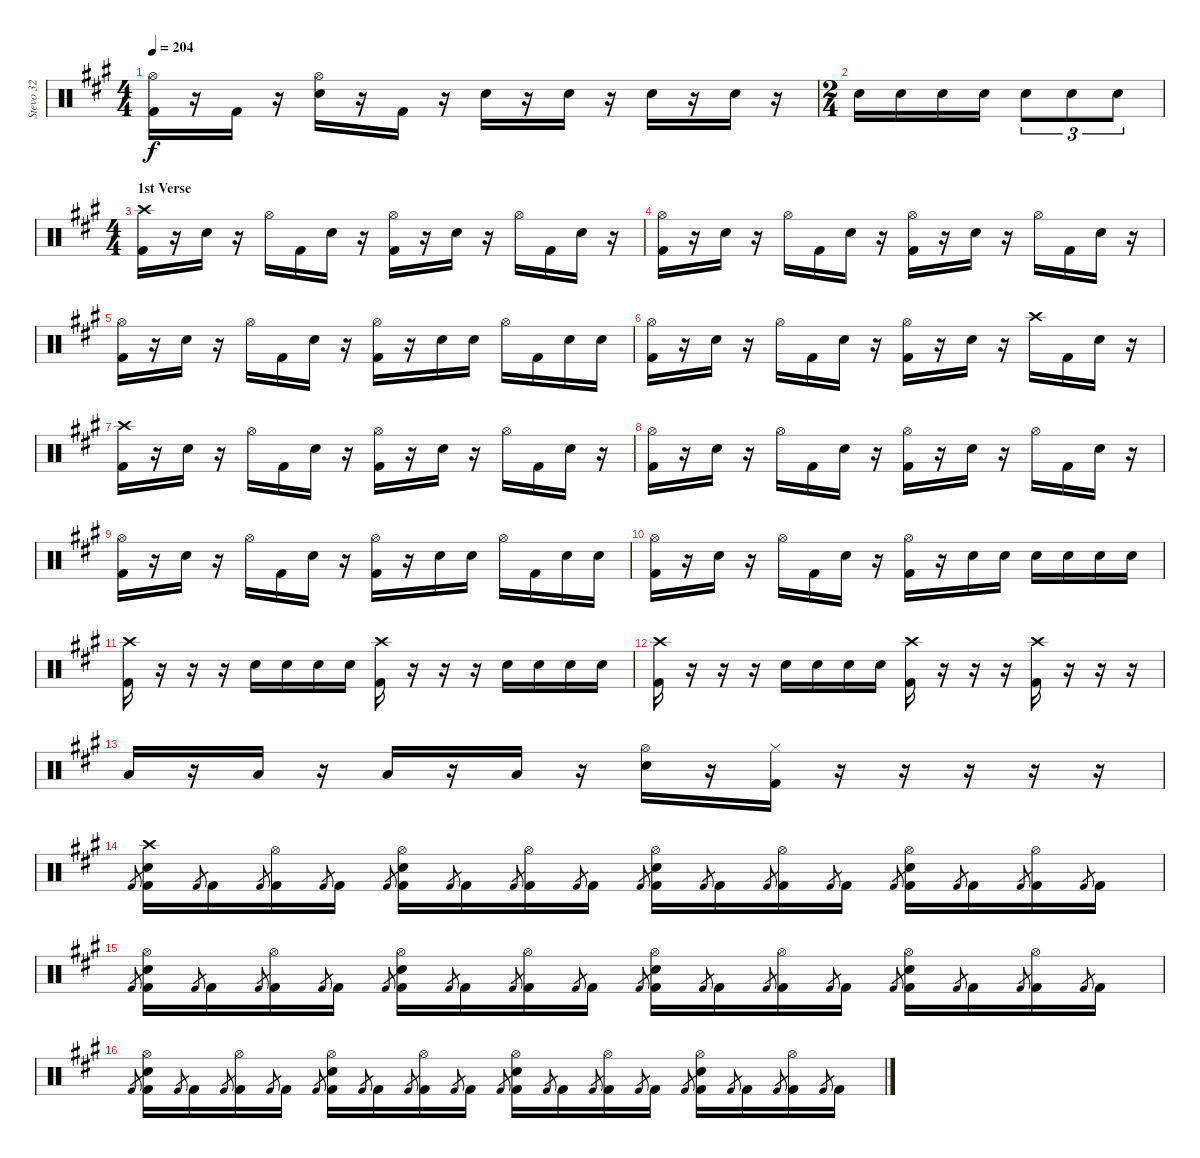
\track ("Stevo 32" "Stevo 32") {instrument percussion}
\staff {score}
\articulation defaults
\ts (4 4)
\tempo 204
\clef neutral
\ks a
("Hi-Hat (open)" "Kick (hit) 2").16{dy f} r.16 "Kick (hit) 2".16 r.16 ("Hi-Hat (open)" "Snare (hit) 2").16 r.16 "Kick (hit) 2".16 r.16 "Snare (hit) 2".16 r.16 "Snare (hit) 2".16 r.16 "Snare (hit) 2".16 r.16 "Snare (hit) 2".16 r.16 |
\ts (2 4)
"Snare (hit) 2".16 "Snare (hit) 2".16 "Snare (hit) 2".16 "Snare (hit) 2".16 "Snare (hit) 2".8{tu (3 2)} "Snare (hit) 2".8{tu (3 2)} "Snare (hit) 2".8{tu (3 2)} |
\ts (4 4)
\section ("" "1st Verse")
("Crash high (hit)" "Kick (hit) 2").16 r.16 "Snare (hit) 2".16 r.16 "Hi-Hat (open)".16 "Kick (hit) 2".16 "Snare (hit) 2".16 r.16 ("Hi-Hat (open)" "Kick (hit) 2").16 r.16 "Snare (hit) 2".16 r.16 "Hi-Hat (open)".16 "Kick (hit) 2".16 "Snare (hit) 2".16 r.16 |
("Hi-Hat (open)" "Kick (hit) 2").16 r.16 "Snare (hit) 2".16 r.16 "Hi-Hat (open)".16 "Kick (hit) 2".16 "Snare (hit) 2".16 r.16 ("Hi-Hat (open)" "Kick (hit) 2").16 r.16 "Snare (hit) 2".16 r.16 "Hi-Hat (open)".16 "Kick (hit) 2".16 "Snare (hit) 2".16 r.16 |
("Hi-Hat (open)" "Kick (hit) 2").16 r.16 "Snare (hit) 2".16 r.16 "Hi-Hat (open)".16 "Kick (hit) 2".16 "Snare (hit) 2".16 r.16 ("Hi-Hat (open)" "Kick (hit) 2").16 r.16 "Snare (hit) 2".16 "Snare (hit) 2".16 "Hi-Hat (open)".16 "Kick (hit) 2".16 "Snare (hit) 2".16 "Snare (hit) 2".16 |
("Hi-Hat (open)" "Kick (hit) 2").16 r.16 "Snare (hit) 2".16 r.16 "Hi-Hat (open)".16 "Kick (hit) 2".16 "Snare (hit) 2".16 r.16 ("Hi-Hat (open)" "Kick (hit) 2").16 r.16 "Snare (hit) 2".16 r.16 "Crash high (hit)".16 "Kick (hit) 2".16 "Snare (hit) 2".16 r.16 |
("Crash high (hit)" "Kick (hit) 2").16 r.16 "Snare (hit) 2".16 r.16 "Hi-Hat (open)".16 "Kick (hit) 2".16 "Snare (hit) 2".16 r.16 ("Hi-Hat (open)" "Kick (hit) 2").16 r.16 "Snare (hit) 2".16 r.16 "Hi-Hat (open)".16 "Kick (hit) 2".16 "Snare (hit) 2".16 r.16 |
("Hi-Hat (open)" "Kick (hit) 2").16 r.16 "Snare (hit) 2".16 r.16 "Hi-Hat (open)".16 "Kick (hit) 2".16 "Snare (hit) 2".16 r.16 ("Hi-Hat (open)" "Kick (hit) 2").16 r.16 "Snare (hit) 2".16 r.16 "Hi-Hat (open)".16 "Kick (hit) 2".16 "Snare (hit) 2".16 r.16 |
("Hi-Hat (open)" "Kick (hit) 2").16 r.16 "Snare (hit) 2".16 r.16 "Hi-Hat (open)".16 "Kick (hit) 2".16 "Snare (hit) 2".16 r.16 ("Hi-Hat (open)" "Kick (hit) 2").16 r.16 "Snare (hit) 2".16 "Snare (hit) 2".16 "Hi-Hat (open)".16 "Kick (hit) 2".16 "Snare (hit) 2".16 "Snare (hit) 2".16 |
("Hi-Hat (open)" "Kick (hit) 2").16 r.16 "Snare (hit) 2".16 r.16 "Hi-Hat (open)".16 "Kick (hit) 2".16 "Snare (hit) 2".16 r.16 ("Hi-Hat (open)" "Kick (hit) 2").16 r.16 "Snare (hit) 2".16 "Snare (hit) 2".16 "Snare (hit) 2".16 "Snare (hit) 2".16 "Snare (hit) 2".16 "Snare (hit) 2".16 |
("Crash high (hit)" "Kick (hit) 2").16 r.16 r.16 r.16 "Snare (hit) 2".16 "Snare (hit) 2".16 "Snare (hit) 2".16 "Snare (hit) 2".16 ("Crash high (hit)" "Kick (hit) 2").16 r.16 r.16 r.16 "Snare (hit) 2".16 "Snare (hit) 2".16 "Snare (hit) 2".16 "Snare (hit) 2".16 |
("Crash high (hit)" "Kick (hit) 2").16 r.16 r.16 r.16 "Snare (hit) 2".16 "Snare (hit) 2".16 "Snare (hit) 2".16 "Snare (hit) 2".16 ("Crash high (hit)" "Kick (hit) 2").16 r.16 r.16 r.16 ("Crash high (hit)" "Kick (hit) 2").16 r.16 r.16 r.16 |
"Low Floor Tom (hit)".16 r.16 "Low Floor Tom (hit)".16 r.16 "Low Floor Tom (hit)".16 r.16 "Low Floor Tom (hit)".16 r.16 ("Hi-Hat (open)" "Snare (hit) 2").16 r.16 ("Hi-Hat (closed)" "Kick (hit) 2").16 r.16 r.16 r.16 r.16 r.16 |
"Kick (hit) 2".8{gr} ("Crash high (hit)" "Snare (hit) 2" "Kick (hit) 2").16 "Kick (hit) 2".8{gr} "Kick (hit) 2".16 "Kick (hit) 2".8{gr} ("Hi-Hat (open)" "Kick (hit) 2").16 "Kick (hit) 2".8{gr} "Kick (hit) 2".16 "Kick (hit) 2".8{gr} ("Hi-Hat (open)" "Snare (hit) 2" "Kick (hit) 2").16 "Kick (hit) 2".8{gr} "Kick (hit) 2".16 "Kick (hit) 2".8{gr} ("Hi-Hat (open)" "Kick (hit) 2").16 "Kick (hit) 2".8{gr} "Kick (hit) 2".16 "Kick (hit) 2".8{gr} ("Hi-Hat (open)" "Snare (hit) 2" "Kick (hit) 2").16 "Kick (hit) 2".8{gr} "Kick (hit) 2".16 "Kick (hit) 2".8{gr} ("Hi-Hat (open)" "Kick (hit) 2").16 "Kick (hit) 2".8{gr} "Kick (hit) 2".16 "Kick (hit) 2".8{gr} ("Hi-Hat (open)" "Snare (hit) 2" "Kick (hit) 2").16 "Kick (hit) 2".8{gr} "Kick (hit) 2".16 "Kick (hit) 2".8{gr} ("Hi-Hat (open)" "Kick (hit) 2").16 "Kick (hit) 2".8{gr} "Kick (hit) 2".16 |
"Kick (hit) 2".8{gr} ("Hi-Hat (open)" "Snare (hit) 2" "Kick (hit) 2").16 "Kick (hit) 2".8{gr} "Kick (hit) 2".16 "Kick (hit) 2".8{gr} ("Hi-Hat (open)" "Kick (hit) 2").16 "Kick (hit) 2".8{gr} "Kick (hit) 2".16 "Kick (hit) 2".8{gr} ("Hi-Hat (open)" "Snare (hit) 2" "Kick (hit) 2").16 "Kick (hit) 2".8{gr} "Kick (hit) 2".16 "Kick (hit) 2".8{gr} ("Hi-Hat (open)" "Kick (hit) 2").16 "Kick (hit) 2".8{gr} "Kick (hit) 2".16 "Kick (hit) 2".8{gr} ("Hi-Hat (open)" "Snare (hit) 2" "Kick (hit) 2").16 "Kick (hit) 2".8{gr} "Kick (hit) 2".16 "Kick (hit) 2".8{gr} ("Hi-Hat (open)" "Kick (hit) 2").16 "Kick (hit) 2".8{gr} "Kick (hit) 2".16 "Kick (hit) 2".8{gr} ("Hi-Hat (open)" "Snare (hit) 2" "Kick (hit) 2").16 "Kick (hit) 2".8{gr} "Kick (hit) 2".16 "Kick (hit) 2".8{gr} ("Hi-Hat (open)" "Kick (hit) 2").16 "Kick (hit) 2".8{gr} "Kick (hit) 2".16 |
"Kick (hit) 2".8{gr} ("Hi-Hat (open)" "Snare (hit) 2" "Kick (hit) 2").16 "Kick (hit) 2".8{gr} "Kick (hit) 2".16 "Kick (hit) 2".8{gr} ("Hi-Hat (open)" "Kick (hit) 2").16 "Kick (hit) 2".8{gr} "Kick (hit) 2".16 "Kick (hit) 2".8{gr} ("Hi-Hat (open)" "Snare (hit) 2" "Kick (hit) 2").16 "Kick (hit) 2".8{gr} "Kick (hit) 2".16 "Kick (hit) 2".8{gr} ("Hi-Hat (open)" "Kick (hit) 2").16 "Kick (hit) 2".8{gr} "Kick (hit) 2".16 "Kick (hit) 2".8{gr} ("Hi-Hat (open)" "Snare (hit) 2" "Kick (hit) 2").16 "Kick (hit) 2".8{gr} "Kick (hit) 2".16 "Kick (hit) 2".8{gr} ("Hi-Hat (open)" "Kick (hit) 2").16 "Kick (hit) 2".8{gr} "Kick (hit) 2".16 "Kick (hit) 2".8{gr} ("Hi-Hat (open)" "Snare (hit) 2" "Kick (hit) 2").16 "Kick (hit) 2".8{gr} "Kick (hit) 2".16 "Kick (hit) 2".8{gr} ("Hi-Hat (open)" "Kick (hit) 2").16 "Kick (hit) 2".8{gr} "Kick (hit) 2".16
